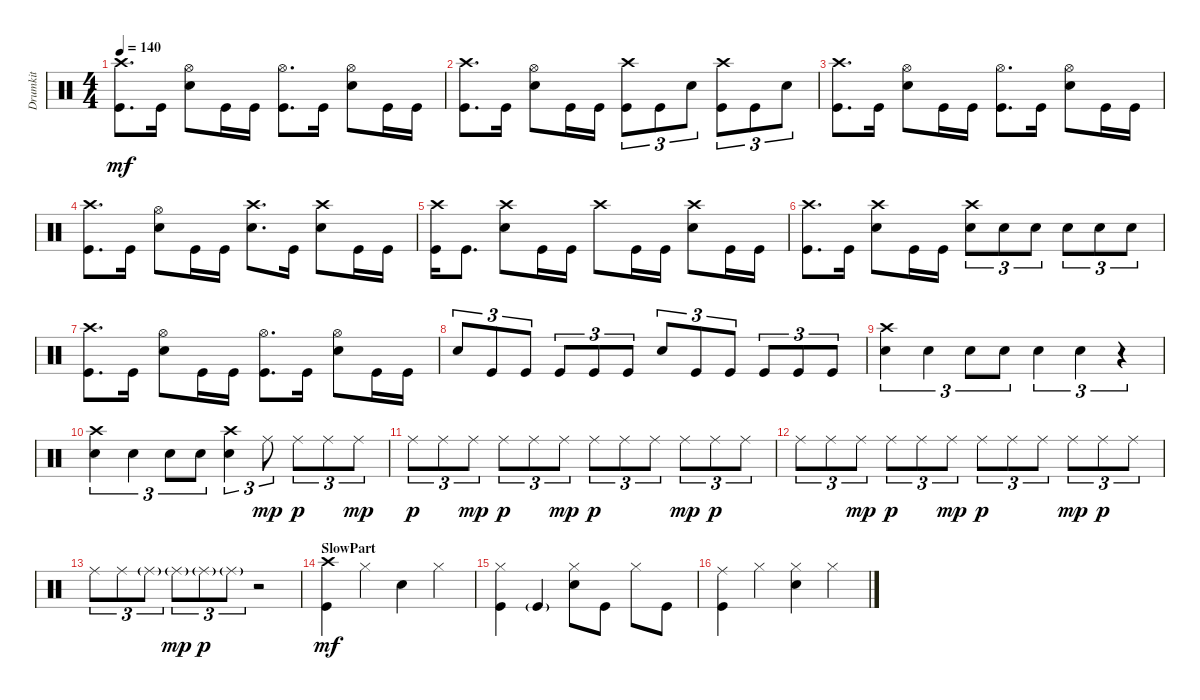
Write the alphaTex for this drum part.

\track ("Drumkit" "Drumkit") {instrument percussion}
\staff {score}
\articulation defaults
\ts (4 4)
\tempo 140
\clef neutral
\ks c
("Kick (hit)" "Crash high (hit)").8{d dy mf} "Kick (hit)".16 ("Snare (hit) 2" "Hi-Hat (open)").8 "Kick (hit)".16 "Kick (hit)".16 ("Kick (hit)" "Hi-Hat (open)").8{d} "Kick (hit)".16 ("Snare (hit) 2" "Hi-Hat (open)").8 "Kick (hit)".16 "Kick (hit)".16 |
("Kick (hit)" "Crash high (hit)").8{d} "Kick (hit)".16 ("Snare (hit) 2" "Hi-Hat (open)").8 "Kick (hit)".16 "Kick (hit)".16 ("Kick (hit)" "Crash high (hit)").8{tu (3 2)} "Kick (hit)".8{tu (3 2)} "Snare (hit) 2".8{tu (3 2)} ("Kick (hit)" "Crash high (hit)").8{tu (3 2)} "Kick (hit)".8{tu (3 2)} "Snare (hit) 2".8{tu (3 2)} |
("Kick (hit)" "Crash high (hit)").8{d} "Kick (hit)".16 ("Snare (hit) 2" "Hi-Hat (open)").8 "Kick (hit)".16 "Kick (hit)".16 ("Kick (hit)" "Hi-Hat (open)").8{d} "Kick (hit)".16 ("Snare (hit) 2" "Hi-Hat (open)").8 "Kick (hit)".16 "Kick (hit)".16 |
("Kick (hit)" "Crash high (hit)").8{d} "Kick (hit)".16 ("Snare (hit) 2" "Hi-Hat (open)").8 "Kick (hit)".16 "Kick (hit)".16 ("Snare (hit) 2" "Crash high (hit)").8{d} "Kick (hit)".16 ("Crash high (hit)" "Snare (hit) 2").8 "Kick (hit)".16 "Kick (hit)".16 |
("Kick (hit)" "Crash high (hit)").16 "Kick (hit)".8{d} ("Snare (hit) 2" "Crash high (hit)").8 "Kick (hit)".16 "Kick (hit)".16 "Crash high (hit)".8 "Kick (hit)".16 "Kick (hit)".16 ("Snare (hit) 2" "Crash high (hit)").8 "Kick (hit)".16 "Kick (hit)".16 |
("Kick (hit)" "Crash high (hit)").8{d} "Kick (hit)".16 ("Snare (hit) 2" "Crash high (hit)").8 "Kick (hit)".16 "Kick (hit)".16 ("Snare (hit) 2" "Crash high (hit)").8{tu (3 2)} "Snare (hit) 2".8{tu (3 2)} "Snare (hit) 2".8{tu (3 2)} "Snare (hit) 2".8{tu (3 2)} "Snare (hit) 2".8{tu (3 2)} "Snare (hit) 2".8{tu (3 2)} |
("Kick (hit)" "Crash high (hit)").8{d} "Kick (hit)".16 ("Snare (hit) 2" "Hi-Hat (open)").8 "Kick (hit)".16 "Kick (hit)".16 ("Kick (hit)" "Hi-Hat (open)").8{d} "Kick (hit)".16 ("Snare (hit) 2" "Hi-Hat (open)").8 "Kick (hit)".16 "Kick (hit)".16 |
"Snare (hit) 2".8{tu (3 2)} "Kick (hit)".8{tu (3 2)} "Kick (hit)".8{tu (3 2)} "Kick (hit)".8{tu (3 2)} "Kick (hit)".8{tu (3 2)} "Kick (hit)".8{tu (3 2)} "Snare (hit) 2".8{tu (3 2)} "Kick (hit)".8{tu (3 2)} "Kick (hit)".8{tu (3 2)} "Kick (hit)".8{tu (3 2)} "Kick (hit)".8{tu (3 2)} "Kick (hit)".8{tu (3 2)} |
("Snare (hit) 2" "Crash high (hit)").4{tu (3 2)} "Snare (hit) 2".4{tu (3 2)} "Snare (hit) 2".8{tu (3 2)} "Snare (hit) 2".8{tu (3 2)} "Snare (hit) 2".4{tu (3 2)} "Snare (hit) 2".4{tu (3 2)} r.4{tu (3 2)} |
("Snare (hit) 2" "Crash high (hit)").4{tu (3 2)} "Snare (hit) 2".4{tu (3 2)} "Snare (hit) 2".8{tu (3 2)} "Snare (hit) 2".8{tu (3 2)} ("Snare (hit) 2" "Crash high (hit)").4{tu (3 2)} "Ride (middle)".8{tu (3 2) dy mp} "Ride (middle)".8{tu (3 2) dy p} "Ride (middle)".8{tu (3 2)} "Ride (middle)".8{tu (3 2) dy mp} |
"Ride (middle)".8{tu (3 2) dy p} "Ride (middle)".8{tu (3 2)} "Ride (middle)".8{tu (3 2) dy mp} "Ride (middle)".8{tu (3 2) dy p} "Ride (middle)".8{tu (3 2)} "Ride (middle)".8{tu (3 2) dy mp} "Ride (middle)".8{tu (3 2) dy p} "Ride (middle)".8{tu (3 2)} "Ride (middle)".8{tu (3 2)} "Ride (middle)".8{tu (3 2) dy mp} "Ride (middle)".8{tu (3 2) dy p} "Ride (middle)".8{tu (3 2)} |
"Ride (middle)".8{tu (3 2)} "Ride (middle)".8{tu (3 2)} "Ride (middle)".8{tu (3 2) dy mp} "Ride (middle)".8{tu (3 2) dy p} "Ride (middle)".8{tu (3 2)} "Ride (middle)".8{tu (3 2) dy mp} "Ride (middle)".8{tu (3 2) dy p} "Ride (middle)".8{tu (3 2)} "Ride (middle)".8{tu (3 2)} "Ride (middle)".8{tu (3 2) dy mp} "Ride (middle)".8{tu (3 2) dy p} "Ride (middle)".8{tu (3 2)} |
"Ride (middle)".8{tu (3 2)} "Ride (middle)".8{tu (3 2)} "Ride (middle)"{g}.8{tu (3 2)} "Ride (middle)"{g}.8{tu (3 2) dy mp} "Ride (middle)"{g}.8{tu (3 2) dy p} "Ride (middle)"{g}.8{tu (3 2)} r.2 |
\section ("" "SlowPart")
("Kick (hit)" "Crash high (hit)").4{dy mf} "Hi-Hat (closed)".4 "Snare (hit) 2".4 "Hi-Hat (closed)".4 |
("Hi-Hat (closed)" "Kick (hit)").4 "Kick (hit)"{g}.4 ("Hi-Hat (closed)" "Snare (hit) 2").8 "Kick (hit)".8 "Hi-Hat (closed)".8 "Kick (hit)".8 |
("Kick (hit)" "Ride (middle)").4 "Hi-Hat (closed)".4 ("Hi-Hat (closed)" "Snare (hit) 2").4 "Hi-Hat (closed)".4
